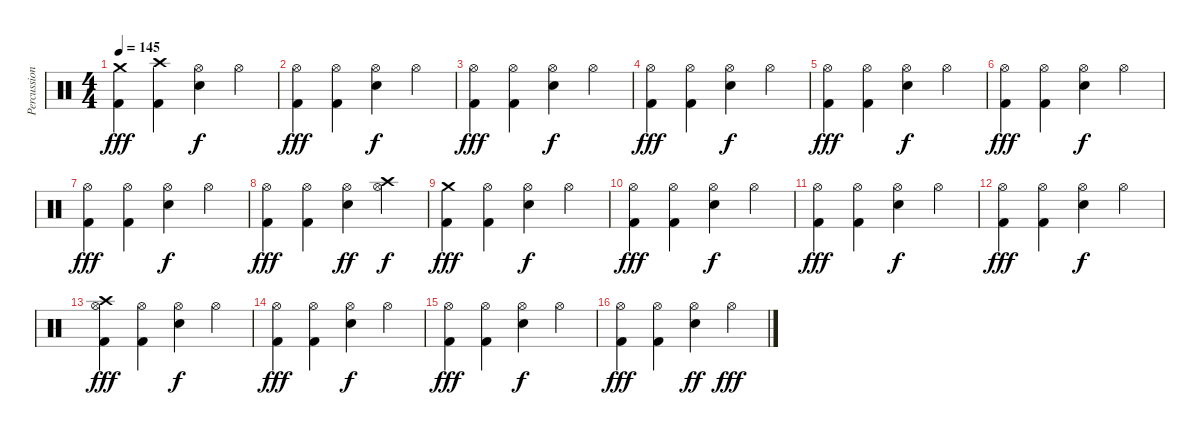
\track ("Percussion" "Percussion") {instrument percussion}
\staff {score}
\articulation defaults
\ts (4 4)
\tempo 145
\clef neutral
\ks c
("Crash medium (hit)" "Kick (hit) 2").4{dy fff} ("Crash high (hit)" "Kick (hit) 2").4 ("Hi-Hat (open)" "Snare (hit) 2").4{dy f} "Hi-Hat (open)".4 |
("Hi-Hat (open)" "Kick (hit) 2").4{dy fff} ("Hi-Hat (open)" "Kick (hit) 2").4 ("Hi-Hat (open)" "Snare (hit) 2").4{dy f} "Hi-Hat (open)".4 |
("Hi-Hat (open)" "Kick (hit) 2").4{dy fff} ("Hi-Hat (open)" "Kick (hit) 2").4 ("Hi-Hat (open)" "Snare (hit) 2").4{dy f} "Hi-Hat (open)".4 |
("Hi-Hat (open)" "Kick (hit) 2").4{dy fff} ("Hi-Hat (open)" "Kick (hit) 2").4 ("Hi-Hat (open)" "Snare (hit) 2").4{dy f} "Hi-Hat (open)".4 |
("Hi-Hat (open)" "Kick (hit) 2").4{dy fff} ("Hi-Hat (open)" "Kick (hit) 2").4 ("Hi-Hat (open)" "Snare (hit) 2").4{dy f} "Hi-Hat (open)".4 |
("Hi-Hat (open)" "Kick (hit) 2").4{dy fff} ("Hi-Hat (open)" "Kick (hit) 2").4 ("Hi-Hat (open)" "Snare (hit) 2").4{dy f} "Hi-Hat (open)".4 |
("Hi-Hat (open)" "Kick (hit) 2").4{dy fff} ("Hi-Hat (open)" "Kick (hit) 2").4 ("Hi-Hat (open)" "Snare (hit) 2").4{dy f} "Hi-Hat (open)".4 |
("Hi-Hat (open)" "Kick (hit) 2").4{dy fff} ("Hi-Hat (open)" "Kick (hit) 2").4 ("Hi-Hat (open)" "Snare (hit) 2").4{dy ff} ("Crash high (hit)" "Hi-Hat (open)").4{dy f} |
("Crash medium (hit)" "Kick (hit) 2").4{dy fff} ("Hi-Hat (open)" "Kick (hit) 2").4 ("Hi-Hat (open)" "Snare (hit) 2").4{dy f} "Hi-Hat (open)".4 |
("Hi-Hat (open)" "Kick (hit) 2").4{dy fff} ("Hi-Hat (open)" "Kick (hit) 2").4 ("Hi-Hat (open)" "Snare (hit) 2").4{dy f} "Hi-Hat (open)".4 |
("Hi-Hat (open)" "Kick (hit) 2").4{dy fff} ("Hi-Hat (open)" "Kick (hit) 2").4 ("Hi-Hat (open)" "Snare (hit) 2").4{dy f} "Hi-Hat (open)".4 |
("Hi-Hat (open)" "Kick (hit) 2").4{dy fff} ("Hi-Hat (open)" "Kick (hit) 2").4 ("Hi-Hat (open)" "Snare (hit) 2").4{dy f} "Hi-Hat (open)".4 |
("Crash high (hit)" "Hi-Hat (open)" "Kick (hit) 2").4{dy fff} ("Hi-Hat (open)" "Kick (hit) 2").4 ("Hi-Hat (open)" "Snare (hit) 2").4{dy f} "Hi-Hat (open)".4 |
("Hi-Hat (open)" "Kick (hit) 2").4{dy fff} ("Hi-Hat (open)" "Kick (hit) 2").4 ("Hi-Hat (open)" "Snare (hit) 2").4{dy f} "Hi-Hat (open)".4 |
("Hi-Hat (open)" "Kick (hit) 2").4{dy fff} ("Hi-Hat (open)" "Kick (hit) 2").4 ("Hi-Hat (open)" "Snare (hit) 2").4{dy f} "Hi-Hat (open)".4 |
("Hi-Hat (open)" "Kick (hit) 2").4{dy fff} ("Hi-Hat (open)" "Kick (hit) 2").4 ("Hi-Hat (open)" "Snare (hit) 2").4{dy ff} "Hi-Hat (open)".4{dy fff}
